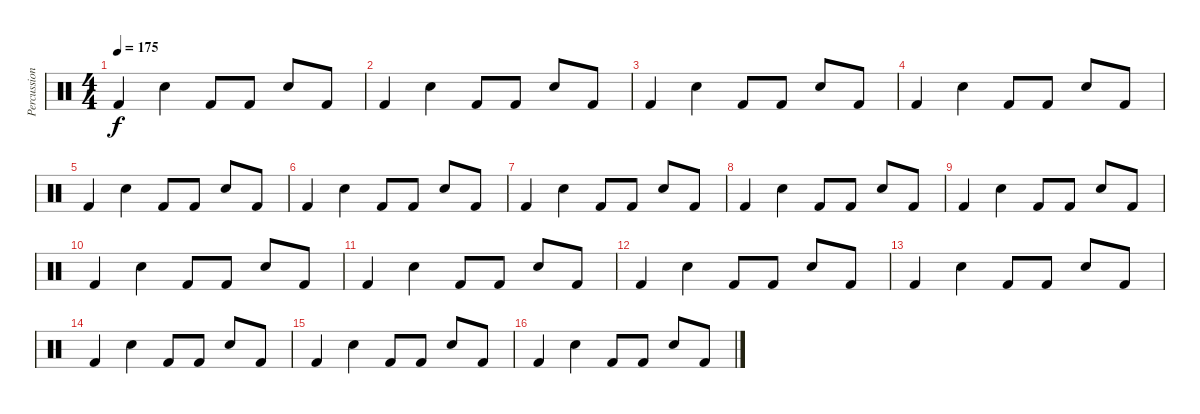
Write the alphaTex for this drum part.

\track ("Percussion" "Percussion") {instrument percussion}
\staff {score}
\articulation defaults
\ts (4 4)
\tempo 175
\clef neutral
\ks c "Kick (hit) 2".4{dy f} "Electric Snare (hit)".4 "Kick (hit) 2".8 "Kick (hit) 2".8 "Electric Snare (hit)".8 "Kick (hit) 2".8
|
"Kick (hit) 2".4 "Electric Snare (hit)".4 "Kick (hit) 2".8 "Kick (hit) 2".8 "Electric Snare (hit)".8 "Kick (hit) 2".8 |
"Kick (hit) 2".4 "Electric Snare (hit)".4 "Kick (hit) 2".8 "Kick (hit) 2".8 "Electric Snare (hit)".8 "Kick (hit) 2".8 |
"Kick (hit) 2".4 "Electric Snare (hit)".4 "Kick (hit) 2".8 "Kick (hit) 2".8 "Electric Snare (hit)".8 "Kick (hit) 2".8 |
"Kick (hit) 2".4 "Electric Snare (hit)".4 "Kick (hit) 2".8 "Kick (hit) 2".8 "Electric Snare (hit)".8 "Kick (hit) 2".8 |
"Kick (hit) 2".4 "Electric Snare (hit)".4 "Kick (hit) 2".8 "Kick (hit) 2".8 "Electric Snare (hit)".8 "Kick (hit) 2".8 |
"Kick (hit) 2".4 "Electric Snare (hit)".4 "Kick (hit) 2".8 "Kick (hit) 2".8 "Electric Snare (hit)".8 "Kick (hit) 2".8 |
"Kick (hit) 2".4 "Electric Snare (hit)".4 "Kick (hit) 2".8 "Kick (hit) 2".8 "Electric Snare (hit)".8 "Kick (hit) 2".8 |
"Kick (hit) 2".4{volume 12} "Electric Snare (hit)".4 "Kick (hit) 2".8 "Kick (hit) 2".8 "Electric Snare (hit)".8 "Kick (hit) 2".8 |
"Kick (hit) 2".4 "Electric Snare (hit)".4 "Kick (hit) 2".8 "Kick (hit) 2".8 "Electric Snare (hit)".8 "Kick (hit) 2".8 |
"Kick (hit) 2".4{volume 8} "Electric Snare (hit)".4 "Kick (hit) 2".8 "Kick (hit) 2".8 "Electric Snare (hit)".8 "Kick (hit) 2".8 |
"Kick (hit) 2".4 "Electric Snare (hit)".4 "Kick (hit) 2".8 "Kick (hit) 2".8 "Electric Snare (hit)".8 "Kick (hit) 2".8 |
"Kick (hit) 2".4{volume 4} "Electric Snare (hit)".4 "Kick (hit) 2".8 "Kick (hit) 2".8 "Electric Snare (hit)".8 "Kick (hit) 2".8 |
"Kick (hit) 2".4 "Electric Snare (hit)".4 "Kick (hit) 2".8 "Kick (hit) 2".8 "Electric Snare (hit)".8 "Kick (hit) 2".8 |
"Kick (hit) 2".4{volume 0} "Electric Snare (hit)".4 "Kick (hit) 2".8 "Kick (hit) 2".8 "Electric Snare (hit)".8 "Kick (hit) 2".8 |
"Kick (hit) 2".4 "Electric Snare (hit)".4 "Kick (hit) 2".8 "Kick (hit) 2".8 "Electric Snare (hit)".8 "Kick (hit) 2".8
